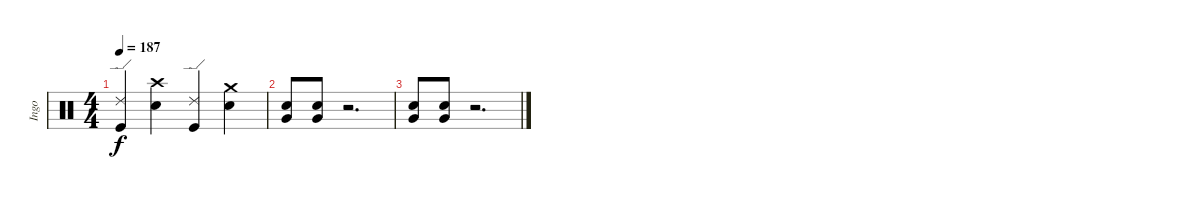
\track ("Ingo" "Ingo") {instrument percussion}
\staff {score}
\articulation defaults
\ts (4 4)
\tempo 187
\clef neutral
\ks c
("Ride (edge) 2" "Kick (hit)").4{dy f} ("Crash high (hit)" "Snare (hit) 2").4 ("Ride (edge) 2" "Kick (hit)").4 ("Crash medium (hit)" "Snare (hit) 2").4 |
("Very Low Tom (hit)" "Snare (hit) 2").8 ("Very Low Tom (hit)" "Snare (hit) 2").8 r.2{d} |
("Very Low Tom (hit)" "Snare (hit) 2").8 ("Very Low Tom (hit)" "Snare (hit) 2").8 r.2{d}
